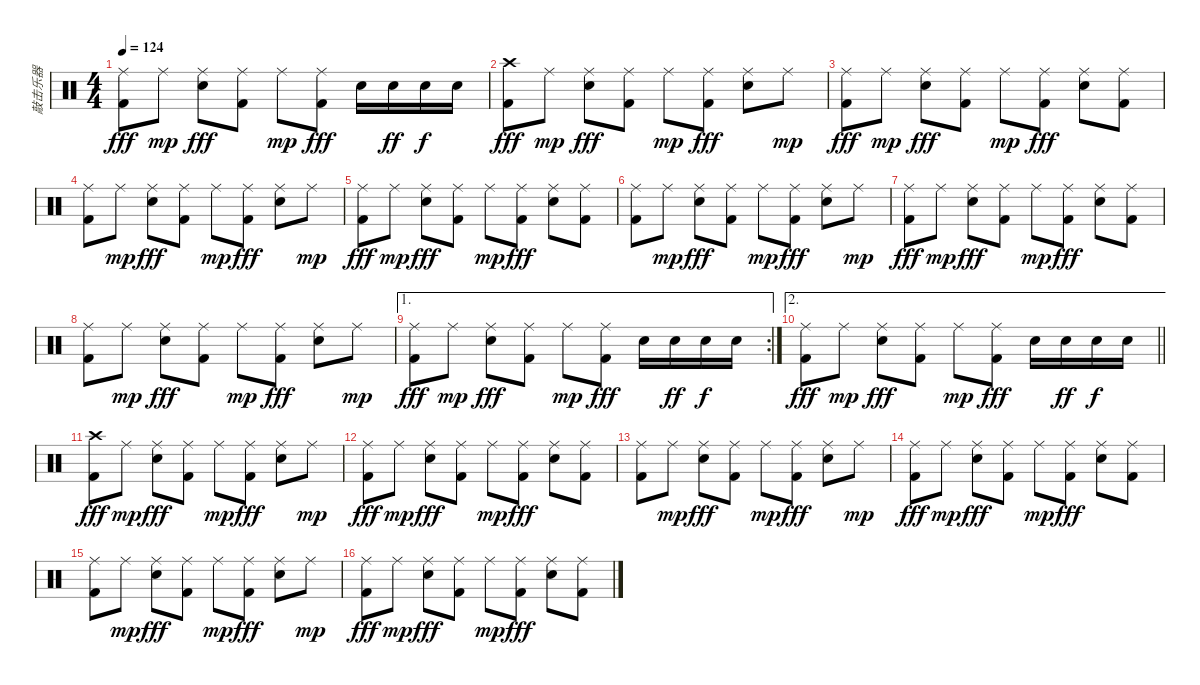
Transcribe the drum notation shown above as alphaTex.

\track ("敲击乐器" "敲击乐器") {instrument percussion}
\staff {score}
\articulation defaults
\ts (4 4)
\tempo 124
\clef neutral
\ks c
("Ride (middle)" "Kick (hit) 2").8{dy fff} "Ride (middle)".8{dy mp} ("Ride (middle)" "Snare (hit) 2").8{dy fff} ("Ride (middle)" "Kick (hit) 2").8 "Ride (middle)".8{dy mp} ("Ride (middle)" "Kick (hit) 2").8{dy fff} "Snare (hit) 2".16 "Snare (hit) 2".16{dy ff} "Snare (hit) 2".16{dy f} "Snare (hit) 2".16 |
("Crash high (hit)" "Kick (hit) 2").8{dy fff} "Ride (middle)".8{dy mp} ("Ride (middle)" "Snare (hit) 2").8{dy fff} ("Ride (middle)" "Kick (hit) 2").8 "Ride (middle)".8{dy mp} ("Ride (middle)" "Kick (hit) 2").8{dy fff} ("Ride (middle)" "Snare (hit) 2").8 "Ride (middle)".8{dy mp} |
("Ride (middle)" "Kick (hit) 2").8{dy fff} "Ride (middle)".8{dy mp} ("Ride (middle)" "Snare (hit) 2").8{dy fff} ("Ride (middle)" "Kick (hit) 2").8 "Ride (middle)".8{dy mp} ("Ride (middle)" "Kick (hit) 2").8{dy fff} ("Ride (middle)" "Snare (hit) 2").8 ("Ride (middle)" "Kick (hit) 2").8 |
("Ride (middle)" "Kick (hit) 2").8 "Ride (middle)".8{dy mp} ("Ride (middle)" "Snare (hit) 2").8{dy fff} ("Ride (middle)" "Kick (hit) 2").8 "Ride (middle)".8{dy mp} ("Ride (middle)" "Kick (hit) 2").8{dy fff} ("Ride (middle)" "Snare (hit) 2").8 "Ride (middle)".8{dy mp} |
("Ride (middle)" "Kick (hit) 2").8{dy fff} "Ride (middle)".8{dy mp} ("Ride (middle)" "Snare (hit) 2").8{dy fff} ("Ride (middle)" "Kick (hit) 2").8 "Ride (middle)".8{dy mp} ("Ride (middle)" "Kick (hit) 2").8{dy fff} ("Ride (middle)" "Snare (hit) 2").8 ("Ride (middle)" "Kick (hit) 2").8 |
("Ride (middle)" "Kick (hit) 2").8 "Ride (middle)".8{dy mp} ("Ride (middle)" "Snare (hit) 2").8{dy fff} ("Ride (middle)" "Kick (hit) 2").8 "Ride (middle)".8{dy mp} ("Ride (middle)" "Kick (hit) 2").8{dy fff} ("Ride (middle)" "Snare (hit) 2").8 "Ride (middle)".8{dy mp} |
("Ride (middle)" "Kick (hit) 2").8{dy fff} "Ride (middle)".8{dy mp} ("Ride (middle)" "Snare (hit) 2").8{dy fff} ("Ride (middle)" "Kick (hit) 2").8 "Ride (middle)".8{dy mp} ("Ride (middle)" "Kick (hit) 2").8{dy fff} ("Ride (middle)" "Snare (hit) 2").8 ("Ride (middle)" "Kick (hit) 2").8 |
("Ride (middle)" "Kick (hit) 2").8 "Ride (middle)".8{dy mp} ("Ride (middle)" "Snare (hit) 2").8{dy fff} ("Ride (middle)" "Kick (hit) 2").8 "Ride (middle)".8{dy mp} ("Ride (middle)" "Kick (hit) 2").8{dy fff} ("Ride (middle)" "Snare (hit) 2").8 "Ride (middle)".8{dy mp} |
\ae 1
\rc 2
("Ride (middle)" "Kick (hit) 2").8{dy fff} "Ride (middle)".8{dy mp} ("Ride (middle)" "Snare (hit) 2").8{dy fff} ("Ride (middle)" "Kick (hit) 2").8 "Ride (middle)".8{dy mp} ("Ride (middle)" "Kick (hit) 2").8{dy fff} "Snare (hit) 2".16 "Snare (hit) 2".16{dy ff} "Snare (hit) 2".16{dy f} "Snare (hit) 2".16 |
\ae 2
\barLineRight lightlight
("Ride (middle)" "Kick (hit) 2").8{dy fff} "Ride (middle)".8{dy mp} ("Ride (middle)" "Snare (hit) 2").8{dy fff} ("Ride (middle)" "Kick (hit) 2").8 "Ride (middle)".8{dy mp} ("Ride (middle)" "Kick (hit) 2").8{dy fff} "Snare (hit) 2".16 "Snare (hit) 2".16{dy ff} "Snare (hit) 2".16{dy f} "Snare (hit) 2".16 |
("Crash high (hit)" "Kick (hit) 2").8{dy fff} "Ride (middle)".8{dy mp} ("Ride (middle)" "Snare (hit) 2").8{dy fff} ("Ride (middle)" "Kick (hit) 2").8 "Ride (middle)".8{dy mp} ("Ride (middle)" "Kick (hit) 2").8{dy fff} ("Ride (middle)" "Snare (hit) 2").8 "Ride (middle)".8{dy mp} |
("Ride (middle)" "Kick (hit) 2").8{dy fff} "Ride (middle)".8{dy mp} ("Ride (middle)" "Snare (hit) 2").8{dy fff} ("Ride (middle)" "Kick (hit) 2").8 "Ride (middle)".8{dy mp} ("Ride (middle)" "Kick (hit) 2").8{dy fff} ("Ride (middle)" "Snare (hit) 2").8 ("Ride (middle)" "Kick (hit) 2").8 |
("Ride (middle)" "Kick (hit) 2").8 "Ride (middle)".8{dy mp} ("Ride (middle)" "Snare (hit) 2").8{dy fff} ("Ride (middle)" "Kick (hit) 2").8 "Ride (middle)".8{dy mp} ("Ride (middle)" "Kick (hit) 2").8{dy fff} ("Ride (middle)" "Snare (hit) 2").8 "Ride (middle)".8{dy mp} |
("Ride (middle)" "Kick (hit) 2").8{dy fff} "Ride (middle)".8{dy mp} ("Ride (middle)" "Snare (hit) 2").8{dy fff} ("Ride (middle)" "Kick (hit) 2").8 "Ride (middle)".8{dy mp} ("Ride (middle)" "Kick (hit) 2").8{dy fff} ("Ride (middle)" "Snare (hit) 2").8 ("Ride (middle)" "Kick (hit) 2").8 |
("Ride (middle)" "Kick (hit) 2").8 "Ride (middle)".8{dy mp} ("Ride (middle)" "Snare (hit) 2").8{dy fff} ("Ride (middle)" "Kick (hit) 2").8 "Ride (middle)".8{dy mp} ("Ride (middle)" "Kick (hit) 2").8{dy fff} ("Ride (middle)" "Snare (hit) 2").8 "Ride (middle)".8{dy mp} |
("Ride (middle)" "Kick (hit) 2").8{dy fff} "Ride (middle)".8{dy mp} ("Ride (middle)" "Snare (hit) 2").8{dy fff} ("Ride (middle)" "Kick (hit) 2").8 "Ride (middle)".8{dy mp} ("Ride (middle)" "Kick (hit) 2").8{dy fff} ("Ride (middle)" "Snare (hit) 2").8 ("Ride (middle)" "Kick (hit) 2").8
